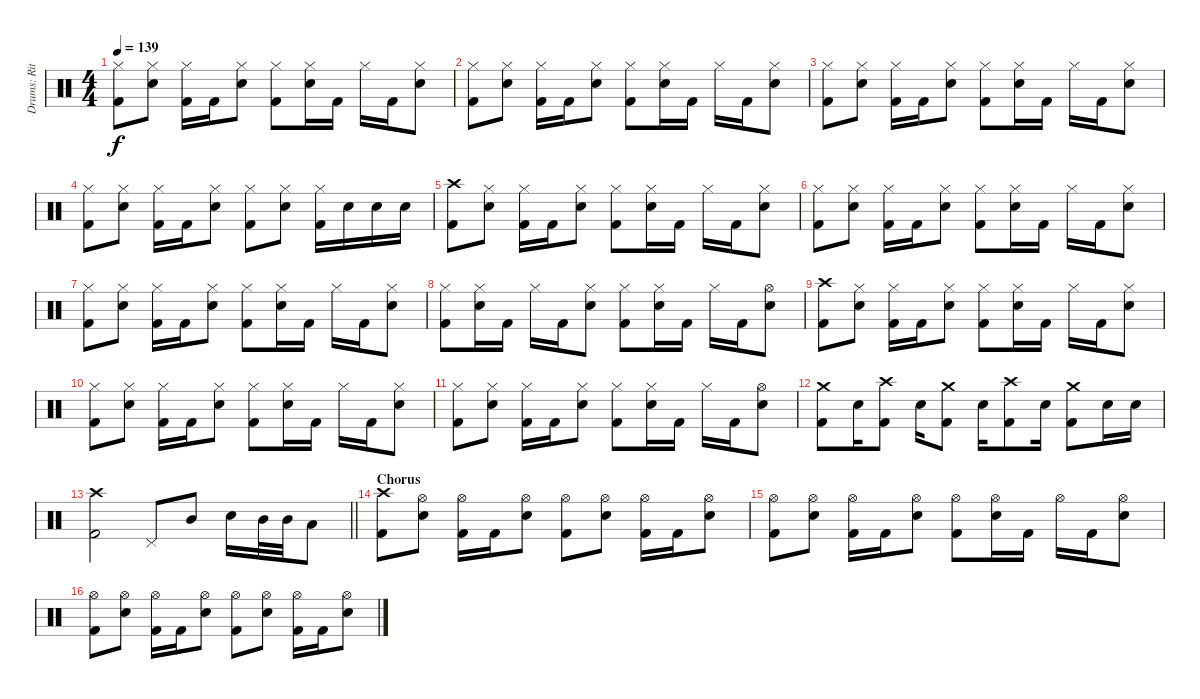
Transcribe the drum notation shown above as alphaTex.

\track ("Drums: Ritsu Tainaka" "Drums: Rit") {instrument percussion}
\staff {score}
\articulation defaults
\ts (4 4)
\tempo 139
\clef neutral
\ks c
("Hi-Hat (closed)" "Kick (hit) 2").8{dy f} ("Hi-Hat (closed)" "Electric Snare (hit)").8 ("Hi-Hat (closed)" "Kick (hit) 2").16 "Kick (hit) 2".16 ("Hi-Hat (closed)" "Electric Snare (hit)").8 ("Hi-Hat (closed)" "Kick (hit) 2").8 ("Hi-Hat (closed)" "Electric Snare (hit)").16 "Kick (hit) 2".16 "Hi-Hat (closed)".16 "Kick (hit) 2".16 ("Hi-Hat (closed)" "Electric Snare (hit)").8 |
("Hi-Hat (closed)" "Kick (hit) 2").8 ("Hi-Hat (closed)" "Electric Snare (hit)").8 ("Hi-Hat (closed)" "Kick (hit) 2").16 "Kick (hit) 2".16 ("Hi-Hat (closed)" "Electric Snare (hit)").8 ("Hi-Hat (closed)" "Kick (hit) 2").8 ("Hi-Hat (closed)" "Electric Snare (hit)").16 "Kick (hit) 2".16 "Hi-Hat (closed)".16 "Kick (hit) 2".16 ("Hi-Hat (closed)" "Electric Snare (hit)").8 |
("Hi-Hat (closed)" "Kick (hit) 2").8 ("Hi-Hat (closed)" "Electric Snare (hit)").8 ("Hi-Hat (closed)" "Kick (hit) 2").16 "Kick (hit) 2".16 ("Hi-Hat (closed)" "Electric Snare (hit)").8 ("Hi-Hat (closed)" "Kick (hit) 2").8 ("Hi-Hat (closed)" "Electric Snare (hit)").16 "Kick (hit) 2".16 "Hi-Hat (closed)".16 "Kick (hit) 2".16 ("Hi-Hat (closed)" "Electric Snare (hit)").8 |
("Hi-Hat (closed)" "Kick (hit) 2").8 ("Hi-Hat (closed)" "Electric Snare (hit)").8 ("Hi-Hat (closed)" "Kick (hit) 2").16 "Kick (hit) 2".16 ("Hi-Hat (closed)" "Electric Snare (hit)").8 ("Hi-Hat (closed)" "Kick (hit) 2").8 ("Hi-Hat (closed)" "Electric Snare (hit)").8 ("Hi-Hat (closed)" "Kick (hit) 2").16 "Electric Snare (hit)".16 "Electric Snare (hit)".16 "Electric Snare (hit)".16 |
("Crash high (hit)" "Kick (hit) 2").8 ("Hi-Hat (closed)" "Electric Snare (hit)").8 ("Hi-Hat (closed)" "Kick (hit) 2").16 "Kick (hit) 2".16 ("Hi-Hat (closed)" "Electric Snare (hit)").8 ("Hi-Hat (closed)" "Kick (hit) 2").8 ("Hi-Hat (closed)" "Electric Snare (hit)").16 "Kick (hit) 2".16 "Hi-Hat (closed)".16 "Kick (hit) 2".16 ("Hi-Hat (closed)" "Electric Snare (hit)").8 |
("Hi-Hat (closed)" "Kick (hit) 2").8 ("Hi-Hat (closed)" "Electric Snare (hit)").8 ("Hi-Hat (closed)" "Kick (hit) 2").16 "Kick (hit) 2".16 ("Hi-Hat (closed)" "Electric Snare (hit)").8 ("Hi-Hat (closed)" "Kick (hit) 2").8 ("Hi-Hat (closed)" "Electric Snare (hit)").16 "Kick (hit) 2".16 "Hi-Hat (closed)".16 "Kick (hit) 2".16 ("Hi-Hat (closed)" "Electric Snare (hit)").8 |
("Hi-Hat (closed)" "Kick (hit) 2").8 ("Hi-Hat (closed)" "Electric Snare (hit)").8 ("Hi-Hat (closed)" "Kick (hit) 2").16 "Kick (hit) 2".16 ("Hi-Hat (closed)" "Electric Snare (hit)").8 ("Hi-Hat (closed)" "Kick (hit) 2").8 ("Hi-Hat (closed)" "Electric Snare (hit)").16 "Kick (hit) 2".16 "Hi-Hat (closed)".16 "Kick (hit) 2".16 ("Hi-Hat (closed)" "Electric Snare (hit)").8 |
("Hi-Hat (closed)" "Kick (hit) 2").8 ("Hi-Hat (closed)" "Electric Snare (hit)").16 "Kick (hit) 2".16 "Hi-Hat (closed)".16 "Kick (hit) 2".16 ("Hi-Hat (closed)" "Electric Snare (hit)").8 ("Hi-Hat (closed)" "Kick (hit) 2").8 ("Hi-Hat (closed)" "Electric Snare (hit)").16 "Kick (hit) 2".16 "Hi-Hat (closed)".16 "Kick (hit) 2".16 ("Hi-Hat (open)" "Electric Snare (hit)").8 |
("Crash high (hit)" "Kick (hit) 2").8 ("Hi-Hat (closed)" "Electric Snare (hit)").8 ("Hi-Hat (closed)" "Kick (hit) 2").16 "Kick (hit) 2".16 ("Hi-Hat (closed)" "Electric Snare (hit)").8 ("Hi-Hat (closed)" "Kick (hit) 2").8 ("Hi-Hat (closed)" "Electric Snare (hit)").16 "Kick (hit) 2".16 "Hi-Hat (closed)".16 "Kick (hit) 2".16 ("Hi-Hat (closed)" "Electric Snare (hit)").8 |
("Hi-Hat (closed)" "Kick (hit) 2").8 ("Hi-Hat (closed)" "Electric Snare (hit)").8 ("Hi-Hat (closed)" "Kick (hit) 2").16 "Kick (hit) 2".16 ("Hi-Hat (closed)" "Electric Snare (hit)").8 ("Hi-Hat (closed)" "Kick (hit) 2").8 ("Hi-Hat (closed)" "Electric Snare (hit)").16 "Kick (hit) 2".16 "Hi-Hat (closed)".16 "Kick (hit) 2".16 ("Hi-Hat (closed)" "Electric Snare (hit)").8 |
("Hi-Hat (closed)" "Kick (hit) 2").8 ("Hi-Hat (closed)" "Electric Snare (hit)").8 ("Hi-Hat (closed)" "Kick (hit) 2").16 "Kick (hit) 2".16 ("Hi-Hat (closed)" "Electric Snare (hit)").8 ("Hi-Hat (closed)" "Kick (hit) 2").8 ("Hi-Hat (closed)" "Electric Snare (hit)").16 "Kick (hit) 2".16 "Hi-Hat (closed)".16 "Kick (hit) 2".16 ("Hi-Hat (open)" "Electric Snare (hit)").8 |
("Crash medium (hit)" "Kick (hit) 2").8 "Electric Snare (hit)".16 ("Crash high (hit)" "Kick (hit) 2").8 "Electric Snare (hit)".16 ("Crash medium (hit)" "Kick (hit) 2").8 "Electric Snare (hit)".16 ("Crash high (hit)" "Kick (hit) 2").8 "Electric Snare (hit)".16 ("Crash medium (hit)" "Kick (hit) 2").8 "Electric Snare (hit)".16 "Electric Snare (hit)".16 |
\barLineRight lightlight
("Crash high (hit)" "Kick (hit) 2").2 "Pedal Hi-Hat (hit)".8 "Mid Tom (hit)".8 "Electric Snare (hit)".16 "Mid Tom (hit)".32 "Mid Tom (hit)".32 "Low Tom (hit)".8 |
\section ("" "Chorus")
("Crash high (hit)" "Kick (hit) 2").8 ("Hi-Hat (open)" "Electric Snare (hit)").8 ("Hi-Hat (open)" "Kick (hit) 2").16 "Kick (hit) 2".16 ("Hi-Hat (open)" "Electric Snare (hit)").8 ("Hi-Hat (open)" "Kick (hit) 2").8 ("Hi-Hat (open)" "Electric Snare (hit)").8 ("Hi-Hat (open)" "Kick (hit) 2").16 "Kick (hit) 2".16 ("Hi-Hat (open)" "Electric Snare (hit)").8 |
("Hi-Hat (open)" "Kick (hit) 2").8 ("Hi-Hat (open)" "Electric Snare (hit)").8 ("Hi-Hat (open)" "Kick (hit) 2").16 "Kick (hit) 2".16 ("Hi-Hat (open)" "Electric Snare (hit)").8 ("Hi-Hat (open)" "Kick (hit) 2").8 ("Hi-Hat (open)" "Electric Snare (hit)").16 "Kick (hit) 2".16 "Hi-Hat (open)".16 "Kick (hit) 2".16 ("Hi-Hat (open)" "Electric Snare (hit)").8 |
("Hi-Hat (open)" "Kick (hit) 2").8 ("Hi-Hat (open)" "Electric Snare (hit)").8 ("Hi-Hat (open)" "Kick (hit) 2").16 "Kick (hit) 2".16 ("Hi-Hat (open)" "Electric Snare (hit)").8 ("Hi-Hat (open)" "Kick (hit) 2").8 ("Hi-Hat (open)" "Electric Snare (hit)").8 ("Hi-Hat (open)" "Kick (hit) 2").16 "Kick (hit) 2".16 ("Hi-Hat (open)" "Electric Snare (hit)").8
